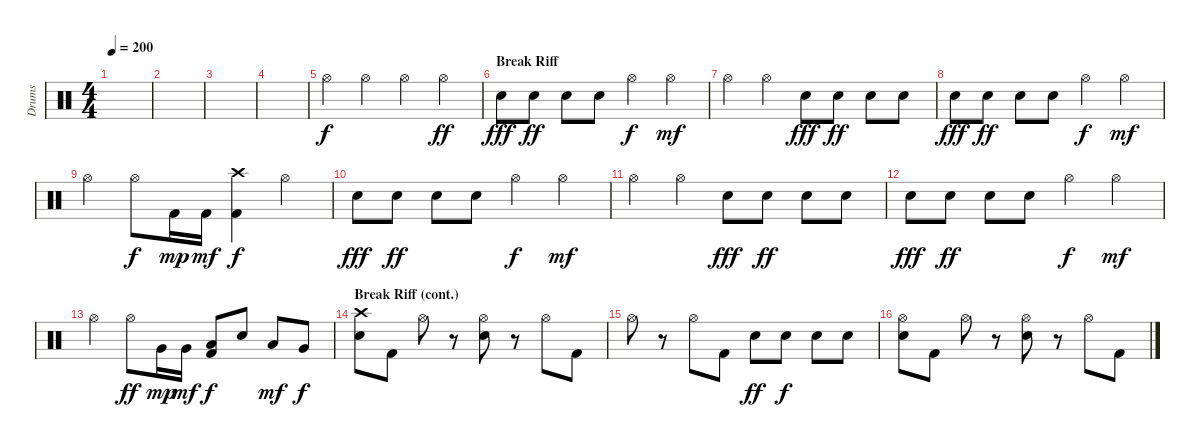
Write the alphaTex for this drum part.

\track ("Drums" "Drums") {instrument percussion}
\staff {score}
\articulation defaults
\ts (4 4)
\tempo 200
\clef neutral
\ks c
|
|
|
|
"Hi-Hat (open)".4 "Hi-Hat (open)".4 "Hi-Hat (open)".4 "Hi-Hat (open)".4{dy ff} |
\section ("" "Break Riff")
"Electric Snare (hit)".8{dy fff} "Electric Snare (hit)".8{dy ff} "Electric Snare (hit)".8 "Electric Snare (hit)".8 "Hi-Hat (open)".4{dy f} "Hi-Hat (open)".4{dy mf} |
"Hi-Hat (open)".4 "Hi-Hat (open)".4 "Electric Snare (hit)".8{dy fff} "Electric Snare (hit)".8{dy ff} "Electric Snare (hit)".8 "Electric Snare (hit)".8 |
"Electric Snare (hit)".8{dy fff} "Electric Snare (hit)".8{dy ff} "Electric Snare (hit)".8 "Electric Snare (hit)".8 "Hi-Hat (open)".4{dy f} "Hi-Hat (open)".4{dy mf} |
"Hi-Hat (open)".4 "Hi-Hat (open)".8{dy f} "Kick (hit) 2".16{dy mp} "Kick (hit) 2".16{dy mf} ("Kick (hit) 2" "Crash high (hit)").4{dy f} "Hi-Hat (open)".4 |
"Electric Snare (hit)".8{dy fff} "Electric Snare (hit)".8{dy ff} "Electric Snare (hit)".8 "Electric Snare (hit)".8 "Hi-Hat (open)".4{dy f} "Hi-Hat (open)".4{dy mf} |
"Hi-Hat (open)".4 "Hi-Hat (open)".4 "Electric Snare (hit)".8{dy fff} "Electric Snare (hit)".8{dy ff} "Electric Snare (hit)".8 "Electric Snare (hit)".8 |
"Electric Snare (hit)".8{dy fff} "Electric Snare (hit)".8{dy ff} "Electric Snare (hit)".8 "Electric Snare (hit)".8 "Hi-Hat (open)".4{dy f} "Hi-Hat (open)".4{dy mf} |
"Hi-Hat (open)".4 "Hi-Hat (open)".8{dy ff} "Very Low Tom (hit)".16{dy mp} "Very Low Tom (hit)".16{dy mf} ("Kick (hit) 2" "Low Tom (hit)").8{dy f} "Electric Snare (hit)".8 "Low Floor Tom (hit)".8{dy mf} "Very Low Tom (hit)".8{dy f} |
\section ("" "Break Riff (cont.)")
("Electric Snare (hit)" "Crash high (hit)").8 "Kick (hit) 2".8 "Hi-Hat (open)".8 r.8 ("Electric Snare (hit)" "Hi-Hat (open)").8 r.8 "Hi-Hat (open)".8 "Kick (hit) 2".8 |
"Hi-Hat (open)".8 r.8 "Hi-Hat (open)".8 "Kick (hit) 2".8 "Electric Snare (hit)".8{dy ff} "Electric Snare (hit)".8{dy f} "Electric Snare (hit)".8 "Electric Snare (hit)".8 |
("Electric Snare (hit)" "Hi-Hat (open)").8 "Kick (hit) 2".8 "Hi-Hat (open)".8 r.8 ("Electric Snare (hit)" "Hi-Hat (open)").8 r.8 "Hi-Hat (open)".8 "Kick (hit) 2".8
